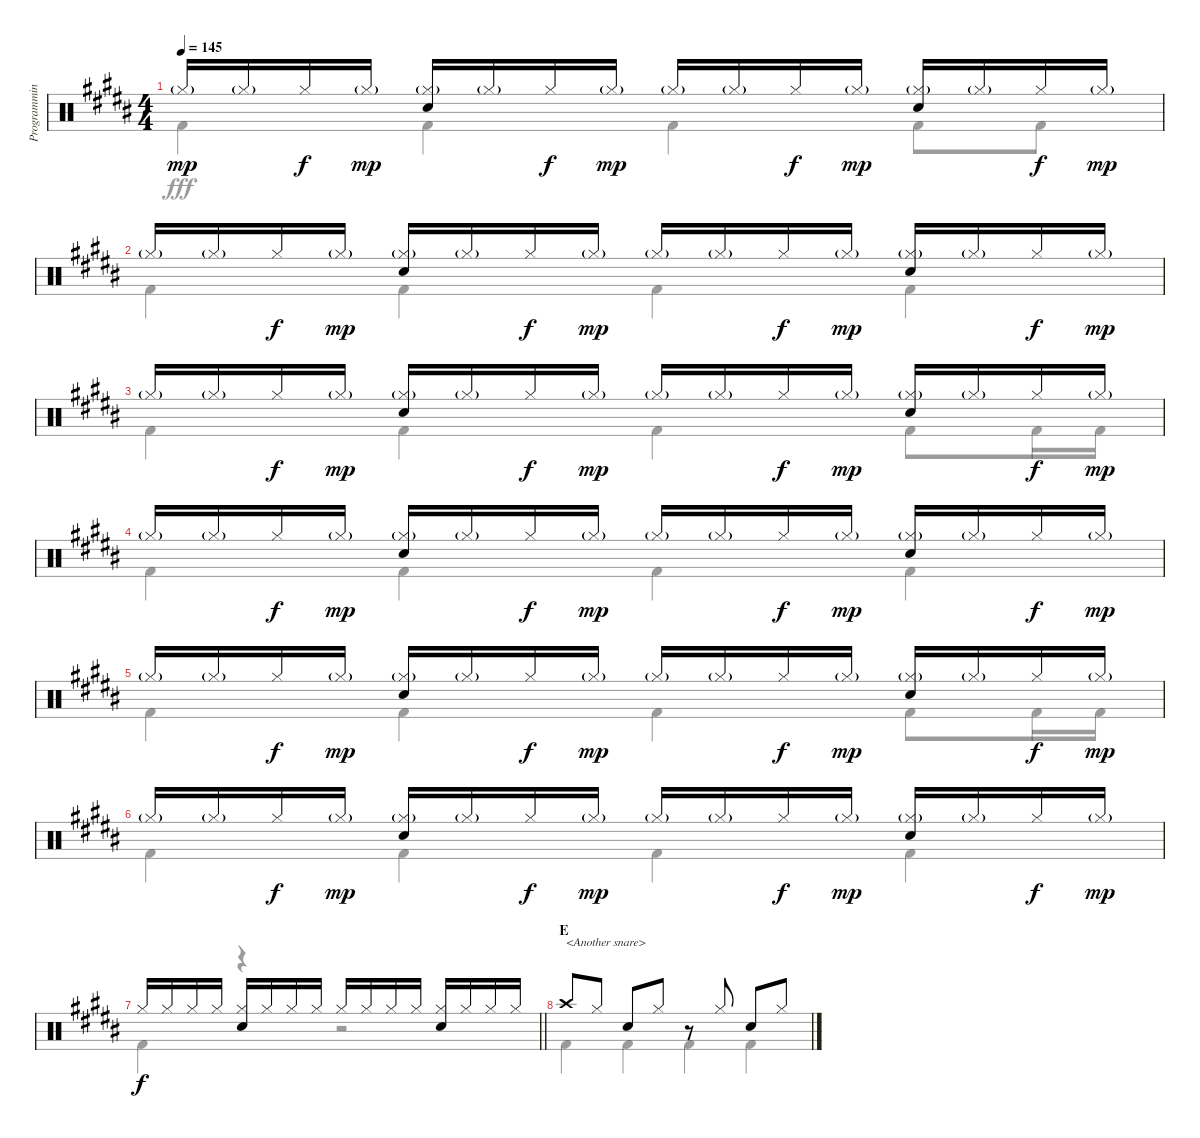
\track ("Programming Drums I" "Programmin") {instrument percussion}
\staff {score}
\articulation defaults
\voice
\ts (4 4)
\tempo 145
\clef neutral
\ks b "Hi-Hat (closed)"{g}.16{dy mp} "Hi-Hat (closed)"{g}.16 "Hi-Hat (closed)".16{dy f} "Hi-Hat (closed)"{g}.16{dy mp}
("Hi-Hat (closed)"{g} "Snare (hit) 2").16 "Hi-Hat (closed)"{g}.16 "Hi-Hat (closed)".16{dy f} "Hi-Hat (closed)"{g}.16{dy mp} "Hi-Hat (closed)"{g}.16 "Hi-Hat (closed)"{g}.16 "Hi-Hat (closed)".16{dy f} "Hi-Hat (closed)"{g}.16{dy mp} ("Hi-Hat (closed)"{g} "Snare (hit) 2").16 "Hi-Hat (closed)"{g}.16 "Hi-Hat (closed)".16{dy f} "Hi-Hat (closed)"{g}.16{dy mp} |
"Hi-Hat (closed)"{g}.16 "Hi-Hat (closed)"{g}.16 "Hi-Hat (closed)".16{dy f} "Hi-Hat (closed)"{g}.16{dy mp} ("Hi-Hat (closed)"{g} "Snare (hit) 2").16 "Hi-Hat (closed)"{g}.16 "Hi-Hat (closed)".16{dy f} "Hi-Hat (closed)"{g}.16{dy mp} "Hi-Hat (closed)"{g}.16 "Hi-Hat (closed)"{g}.16 "Hi-Hat (closed)".16{dy f} "Hi-Hat (closed)"{g}.16{dy mp} ("Hi-Hat (closed)"{g} "Snare (hit) 2").16 "Hi-Hat (closed)"{g}.16 "Hi-Hat (closed)".16{dy f} "Hi-Hat (closed)"{g}.16{dy mp} |
"Hi-Hat (closed)"{g}.16 "Hi-Hat (closed)"{g}.16 "Hi-Hat (closed)".16{dy f} "Hi-Hat (closed)"{g}.16{dy mp} ("Hi-Hat (closed)"{g} "Snare (hit) 2").16 "Hi-Hat (closed)"{g}.16 "Hi-Hat (closed)".16{dy f} "Hi-Hat (closed)"{g}.16{dy mp} "Hi-Hat (closed)"{g}.16 "Hi-Hat (closed)"{g}.16 "Hi-Hat (closed)".16{dy f} "Hi-Hat (closed)"{g}.16{dy mp} ("Hi-Hat (closed)"{g} "Snare (hit) 2").16 "Hi-Hat (closed)"{g}.16 "Hi-Hat (closed)".16{dy f} "Hi-Hat (closed)"{g}.16{dy mp} |
"Hi-Hat (closed)"{g}.16 "Hi-Hat (closed)"{g}.16 "Hi-Hat (closed)".16{dy f} "Hi-Hat (closed)"{g}.16{dy mp} ("Hi-Hat (closed)"{g} "Snare (hit) 2").16 "Hi-Hat (closed)"{g}.16 "Hi-Hat (closed)".16{dy f} "Hi-Hat (closed)"{g}.16{dy mp} "Hi-Hat (closed)"{g}.16 "Hi-Hat (closed)"{g}.16 "Hi-Hat (closed)".16{dy f} "Hi-Hat (closed)"{g}.16{dy mp} ("Hi-Hat (closed)"{g} "Snare (hit) 2").16 "Hi-Hat (closed)"{g}.16 "Hi-Hat (closed)".16{dy f} "Hi-Hat (closed)"{g}.16{dy mp} |
"Hi-Hat (closed)"{g}.16 "Hi-Hat (closed)"{g}.16 "Hi-Hat (closed)".16{dy f} "Hi-Hat (closed)"{g}.16{dy mp} ("Hi-Hat (closed)"{g} "Snare (hit) 2").16 "Hi-Hat (closed)"{g}.16 "Hi-Hat (closed)".16{dy f} "Hi-Hat (closed)"{g}.16{dy mp} "Hi-Hat (closed)"{g}.16 "Hi-Hat (closed)"{g}.16 "Hi-Hat (closed)".16{dy f} "Hi-Hat (closed)"{g}.16{dy mp} ("Hi-Hat (closed)"{g} "Snare (hit) 2").16 "Hi-Hat (closed)"{g}.16 "Hi-Hat (closed)".16{dy f} "Hi-Hat (closed)"{g}.16{dy mp} |
"Hi-Hat (closed)"{g}.16 "Hi-Hat (closed)"{g}.16 "Hi-Hat (closed)".16{dy f} "Hi-Hat (closed)"{g}.16{dy mp} ("Hi-Hat (closed)"{g} "Snare (hit) 2").16 "Hi-Hat (closed)"{g}.16 "Hi-Hat (closed)".16{dy f} "Hi-Hat (closed)"{g}.16{dy mp} "Hi-Hat (closed)"{g}.16 "Hi-Hat (closed)"{g}.16 "Hi-Hat (closed)".16{dy f} "Hi-Hat (closed)"{g}.16{dy mp} ("Hi-Hat (closed)"{g} "Snare (hit) 2").16 "Hi-Hat (closed)"{g}.16 "Hi-Hat (closed)".16{dy f} "Hi-Hat (closed)"{g}.16{dy mp} |
\barLineRight lightlight "Hi-Hat (closed)".16{dy f} "Hi-Hat (closed)".16 "Hi-Hat (closed)".16 "Hi-Hat (closed)".16
("Hi-Hat (closed)" "Snare (hit) 2").16 "Hi-Hat (closed)".16 "Hi-Hat (closed)".16 "Hi-Hat (closed)".16 "Hi-Hat (closed)".16 "Hi-Hat (closed)".16 "Hi-Hat (closed)".16 "Hi-Hat (closed)".16 ("Hi-Hat (closed)" "Snare (hit) 2").16 "Hi-Hat (closed)".16 "Hi-Hat (closed)".16 "Hi-Hat (closed)".16 |
\section ("" "E")
"Crash high (hit)".8{txt "<Another snare>"} "Hi-Hat (closed)".8 "Snare (hit) 2".8 "Hi-Hat (closed)".8 r.8 "Hi-Hat (closed)".8 "Snare (hit) 2".8 "Hi-Hat (closed)".8
\voice
\clef neutral
\ottava regular
\simile none
\ks b "Kick (hit) 2".4{dy fff} "Kick (hit) 2".4 "Kick (hit) 2".4 "Kick (hit) 2".8 "Kick (hit) 2".8
|
"Kick (hit) 2".4 "Kick (hit) 2".4 "Kick (hit) 2".4 "Kick (hit) 2".4 |
"Kick (hit) 2".4 "Kick (hit) 2".4 "Kick (hit) 2".4 "Kick (hit) 2".8 "Kick (hit) 2".16 "Kick (hit) 2".16 |
"Kick (hit) 2".4 "Kick (hit) 2".4 "Kick (hit) 2".4 "Kick (hit) 2".4 |
"Kick (hit) 2".4 "Kick (hit) 2".4 "Kick (hit) 2".4 "Kick (hit) 2".8 "Kick (hit) 2".16 "Kick (hit) 2".16 |
"Kick (hit) 2".4 "Kick (hit) 2".4 "Kick (hit) 2".4 "Kick (hit) 2".4 |
\barLineRight lightlight "Kick (hit) 2".4
r.4 r.2 |
"Kick (hit) 2".4 "Kick (hit) 2".4 "Kick (hit) 2".4 "Kick (hit) 2".4
